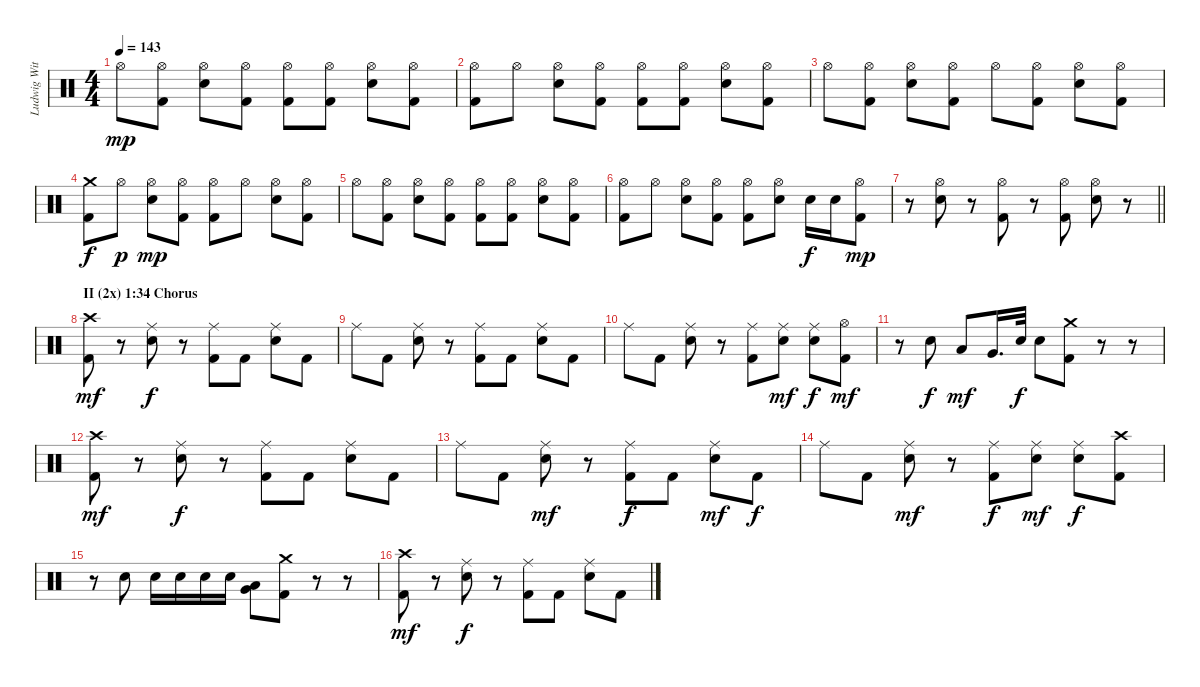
\track ("Ludwig Witt (Drums)" "Ludwig Wit") {instrument percussion}
\staff {score}
\articulation defaults
\ts (4 4)
\tempo 143
\clef neutral
\ks c "Hi-Hat (open)".8{dy mp}
("Hi-Hat (open)" "Kick (hit) 2").8 ("Hi-Hat (open)" "Electric Snare (hit)").8 ("Hi-Hat (open)" "Kick (hit) 2").8 ("Hi-Hat (open)" "Kick (hit) 2").8 ("Hi-Hat (open)" "Kick (hit) 2").8 ("Hi-Hat (open)" "Electric Snare (hit)").8 ("Hi-Hat (open)" "Kick (hit) 2").8 |
("Hi-Hat (open)" "Kick (hit) 2").8 "Hi-Hat (open)".8 ("Hi-Hat (open)" "Electric Snare (hit)").8 ("Hi-Hat (open)" "Kick (hit) 2").8 ("Hi-Hat (open)" "Kick (hit) 2").8 ("Hi-Hat (open)" "Kick (hit) 2").8 ("Hi-Hat (open)" "Electric Snare (hit)").8 ("Hi-Hat (open)" "Kick (hit) 2").8 |
"Hi-Hat (open)".8 ("Hi-Hat (open)" "Kick (hit) 2").8 ("Hi-Hat (open)" "Electric Snare (hit)").8 ("Hi-Hat (open)" "Kick (hit) 2").8 "Hi-Hat (open)".8 ("Hi-Hat (open)" "Kick (hit) 2").8 ("Hi-Hat (open)" "Electric Snare (hit)").8 ("Hi-Hat (open)" "Kick (hit) 2").8 |
("Crash medium (hit)" "Kick (hit) 2").8{dy f} "Hi-Hat (open)".8{dy p} ("Hi-Hat (open)" "Electric Snare (hit)").8{dy mp} ("Hi-Hat (open)" "Kick (hit) 2").8 ("Hi-Hat (open)" "Kick (hit) 2").8 "Hi-Hat (open)".8 ("Hi-Hat (open)" "Electric Snare (hit)").8 ("Hi-Hat (open)" "Kick (hit) 2").8 |
"Hi-Hat (open)".8 ("Hi-Hat (open)" "Kick (hit) 2").8 ("Hi-Hat (open)" "Electric Snare (hit)").8 ("Hi-Hat (open)" "Kick (hit) 2").8 ("Hi-Hat (open)" "Kick (hit) 2").8 ("Hi-Hat (open)" "Kick (hit) 2").8 ("Hi-Hat (open)" "Electric Snare (hit)").8 ("Hi-Hat (open)" "Kick (hit) 2").8 |
("Hi-Hat (open)" "Kick (hit) 2").8 "Hi-Hat (open)".8 ("Hi-Hat (open)" "Electric Snare (hit)").8 ("Hi-Hat (open)" "Kick (hit) 2").8 ("Hi-Hat (open)" "Kick (hit) 2").8 ("Hi-Hat (open)" "Electric Snare (hit)").8 "Electric Snare (hit)".16{dy f} "Electric Snare (hit)".16 ("Hi-Hat (open)" "Kick (hit) 2").8{dy mp} |
\barLineRight lightlight
r.8 ("Hi-Hat (open)" "Electric Snare (hit)").8 r.8 ("Hi-Hat (open)" "Kick (hit) 2").8 r.8 ("Hi-Hat (open)" "Kick (hit) 2").8 ("Hi-Hat (open)" "Electric Snare (hit)").8 r.8 |
\section ("" "II (2x) 1:34 Chorus")
("Crash high (hit)" "Kick (hit) 2").8{dy mf} r.8 ("Ride (middle)" "Electric Snare (hit)").8{dy f} r.8 ("Ride (middle)" "Kick (hit) 2").8 "Kick (hit) 2".8 ("Ride (middle)" "Electric Snare (hit)").8 "Kick (hit) 2".8 |
"Ride (middle)".8 "Kick (hit) 2".8 ("Ride (middle)" "Electric Snare (hit)").8 r.8 ("Ride (middle)" "Kick (hit) 2").8 "Kick (hit) 2".8 ("Ride (middle)" "Electric Snare (hit)").8 "Kick (hit) 2".8 |
"Ride (middle)".8 "Kick (hit) 2".8 ("Ride (middle)" "Electric Snare (hit)").8 r.8 ("Ride (middle)" "Kick (hit) 2").8 ("Ride (middle)" "Electric Snare (hit)").8{dy mf} ("Ride (middle)" "Electric Snare (hit)").8{dy f} ("Hi-Hat (open)" "Kick (hit) 2").8{dy mf} |
r.8 "Electric Snare (hit)".8{dy f} "Low Tom (hit)".8{dy mf} "Very Low Tom (hit)".16{d} "Electric Snare (hit)".32{dy f} "Electric Snare (hit)".8 ("Crash medium (hit)" "Kick (hit) 2").8 r.8 r.8 |
("Crash high (hit)" "Kick (hit) 2").8{dy mf} r.8 ("Ride (middle)" "Electric Snare (hit)").8{dy f} r.8 ("Ride (middle)" "Kick (hit) 2").8 "Kick (hit) 2".8 ("Ride (middle)" "Electric Snare (hit)").8 "Kick (hit) 2".8 |
"Ride (middle)".8 "Kick (hit) 2".8 ("Ride (middle)" "Electric Snare (hit)").8{dy mf} r.8 ("Ride (middle)" "Kick (hit) 2").8{dy f} "Kick (hit) 2".8 ("Ride (middle)" "Electric Snare (hit)").8{dy mf} "Kick (hit) 2".8{dy f} |
"Ride (middle)".8 "Kick (hit) 2".8 ("Ride (middle)" "Electric Snare (hit)").8{dy mf} r.8 ("Ride (middle)" "Kick (hit) 2").8{dy f} ("Ride (middle)" "Electric Snare (hit)").8{dy mf} ("Ride (middle)" "Electric Snare (hit)").8{dy f} ("Crash high (hit)" "Kick (hit) 2").8 |
r.8 "Electric Snare (hit)".8 "Electric Snare (hit)".16 "Electric Snare (hit)".16 "Electric Snare (hit)".16 "Electric Snare (hit)".16 ("Very Low Tom (hit)" "Low Tom (hit)").8 ("Crash medium (hit)" "Kick (hit) 2").8 r.8 r.8 |
("Crash high (hit)" "Kick (hit) 2").8{dy mf} r.8 ("Ride (middle)" "Electric Snare (hit)").8{dy f} r.8 ("Ride (middle)" "Kick (hit) 2").8 "Kick (hit) 2".8 ("Ride (middle)" "Electric Snare (hit)").8 "Kick (hit) 2".8
